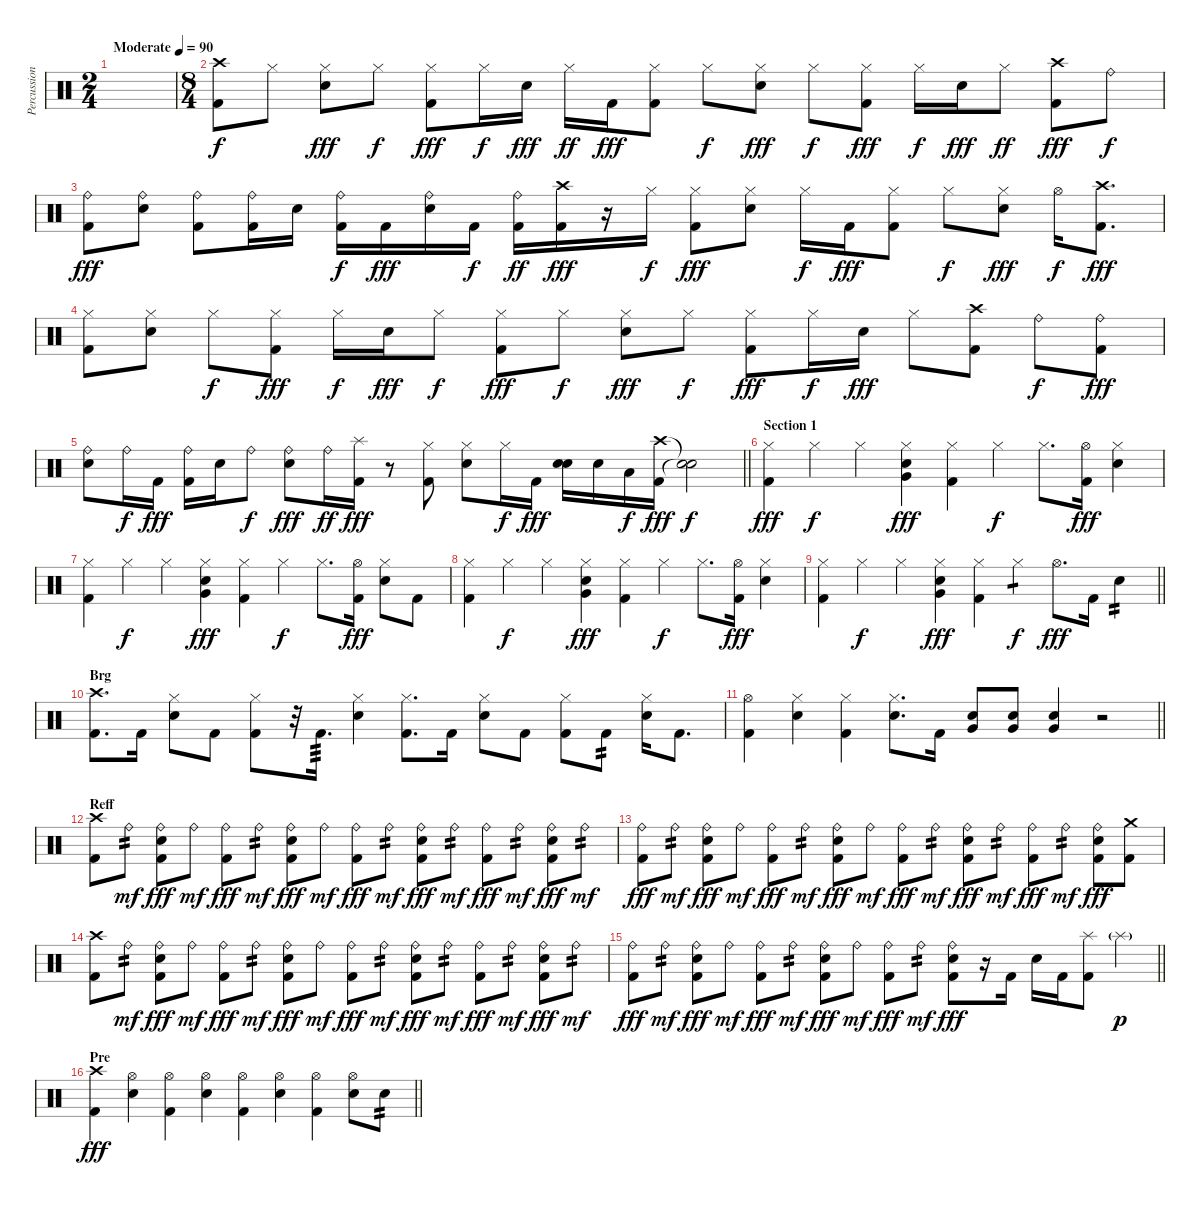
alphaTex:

\track ("Percussion" "Percussion") {instrument percussion}
\staff {score}
\articulation defaults
\ts (2 4)
\tempo (90 "Moderate")
\clef neutral
\ks c
|
\ts (8 4)
("Crash high (hit)" "Kick (hit) 2").8 "Hi-Hat (closed)".8{dy f} ("Hi-Hat (closed)" "Electric Snare (hit)").8{dy fff} "Hi-Hat (closed)".8{dy f} ("Hi-Hat (closed)" "Kick (hit) 2").8{dy fff} "Hi-Hat (closed)".16{dy f} "Electric Snare (hit)".16{dy fff} "Hi-Hat (closed)".16{dy ff} "Kick (hit) 2".16{dy fff} ("Hi-Hat (closed)" "Kick (hit) 2").8 "Hi-Hat (closed)".8{dy f} ("Hi-Hat (closed)" "Electric Snare (hit)").8{dy fff} "Hi-Hat (closed)".8{dy f} ("Hi-Hat (closed)" "Kick (hit) 2").8{dy fff} "Hi-Hat (closed)".16{dy f} "Electric Snare (hit)".16{dy fff} "Hi-Hat (closed)".8{dy ff} ("Crash high (hit)" "Kick (hit) 2").8{dy fff} "Ride (bell)".8{dy f} |
("Ride (bell)" "Kick (hit) 2").8{dy fff} ("Ride (bell)" "Electric Snare (hit)").8 ("Ride (bell)" "Kick (hit) 2").8 ("Ride (bell)" "Kick (hit) 2").16 "Electric Snare (hit)".16 ("Ride (bell)" "Kick (hit) 2").16{dy f} "Kick (hit) 2".16{dy fff} ("Ride (bell)" "Electric Snare (hit)").16 "Kick (hit) 2".16{dy f} ("Ride (bell)" "Kick (hit) 2").16{dy ff} ("Crash high (hit)" "Kick (hit) 2").16{dy fff} r.16 "Hi-Hat (closed)".16{dy f} ("Hi-Hat (closed)" "Kick (hit) 2").8{dy fff} ("Hi-Hat (closed)" "Electric Snare (hit)").8 "Hi-Hat (closed)".16{dy f} "Kick (hit) 2".16{dy fff} ("Hi-Hat (closed)" "Kick (hit) 2").8 "Hi-Hat (closed)".8{dy f} ("Hi-Hat (closed)" "Electric Snare (hit)").8{dy fff} "Hi-Hat (open)".16{dy f} ("Crash high (hit)" "Kick (hit) 2").8{d dy fff} |
("Hi-Hat (closed)" "Kick (hit) 2").8 ("Hi-Hat (closed)" "Electric Snare (hit)").8 "Hi-Hat (closed)".8{dy f} ("Hi-Hat (closed)" "Kick (hit) 2").8{dy fff} "Hi-Hat (closed)".16{dy f} "Electric Snare (hit)".16{dy fff} "Hi-Hat (closed)".8{dy f} ("Hi-Hat (closed)" "Kick (hit) 2").8{dy fff} "Hi-Hat (closed)".8{dy f} ("Hi-Hat (closed)" "Electric Snare (hit)").8{dy fff} "Hi-Hat (closed)".8{dy f} ("Hi-Hat (closed)" "Kick (hit) 2").8{dy fff} "Hi-Hat (closed)".16{dy f} "Electric Snare (hit)".16{dy fff} "Hi-Hat (closed)".8 ("Crash high (hit)" "Kick (hit) 2").8 "Ride (bell)".8{dy f} ("Ride (bell)" "Kick (hit) 2").8{dy fff} |
\barLineRight lightlight
("Ride (bell)" "Electric Snare (hit)").8 "Ride (bell)".16{dy f} "Kick (hit) 2".16{dy fff} ("Ride (bell)" "Kick (hit) 2").16 "Electric Snare (hit)".16 "Ride (bell)".8{dy f} ("Ride (bell)" "Electric Snare (hit)").8{dy fff} "Ride (bell)".16{dy ff} ("Splash (hit)" "Kick (hit) 2").16{dy fff} r.8 ("Hi-Hat (closed)" "Kick (hit) 2").8 ("Hi-Hat (closed)" "Electric Snare (hit)").8 "Hi-Hat (closed)".16{dy f} "Kick (hit) 2".16{dy fff} ("Electric Snare (hit)" "Electric Snare (hit)").16{bd 240} "Electric Snare (hit)".16 "Low Tom (hit)".16{dy f} ("Crash high (hit)" "Kick (hit) 2").16{dy fff} ("Snare (hit)"{t} "Snare (hit)"{t}).2{dy f} |
\section ("" "Section 1")
("Hi-Hat (closed)" "Kick (hit) 2").4{dy fff} "Hi-Hat (closed)".4{dy f} "Hi-Hat (closed)".4 ("Hi-Hat (closed)" "Very Low Tom (hit)" "Electric Snare (hit)").4{dy fff} ("Hi-Hat (closed)" "Kick (hit) 2").4 "Hi-Hat (closed)".4{dy f} "Hi-Hat (closed)".8{d} ("Hi-Hat (open)" "Kick (hit) 2").16{dy fff} ("Hi-Hat (closed)" "Electric Snare (hit)").4 |
("Hi-Hat (closed)" "Kick (hit) 2").4 "Hi-Hat (closed)".4{dy f} "Hi-Hat (closed)".4 ("Hi-Hat (closed)" "Very Low Tom (hit)" "Electric Snare (hit)").4{dy fff} ("Hi-Hat (closed)" "Kick (hit) 2").4 "Hi-Hat (closed)".4{dy f} "Hi-Hat (closed)".8{d} ("Hi-Hat (open)" "Kick (hit) 2").16{dy fff} ("Hi-Hat (closed)" "Electric Snare (hit)").8 "Kick (hit) 2".8 |
("Hi-Hat (closed)" "Kick (hit) 2").4 "Hi-Hat (closed)".4{dy f} "Hi-Hat (closed)".4 ("Hi-Hat (closed)" "Very Low Tom (hit)" "Electric Snare (hit)").4{dy fff} ("Hi-Hat (closed)" "Kick (hit) 2").4 "Hi-Hat (closed)".4{dy f} "Hi-Hat (closed)".8{d} ("Hi-Hat (open)" "Kick (hit) 2").16{dy fff} ("Hi-Hat (closed)" "Electric Snare (hit)").4 |
\barLineRight lightlight
("Hi-Hat (closed)" "Kick (hit) 2").4 "Hi-Hat (closed)".4{dy f} "Hi-Hat (closed)".4 ("Hi-Hat (closed)" "Very Low Tom (hit)" "Electric Snare (hit)").4{dy fff} ("Hi-Hat (closed)" "Kick (hit) 2").4 "Hi-Hat (closed)".4{tp 1 dy f} "Hi-Hat (open)".8{d dy fff} "Kick (hit) 2".16 "Electric Snare (hit)".4{tp 2} |
\section ("" "Brg")
("Crash high (hit)" "Kick (hit) 2").8{d} "Kick (hit) 2".16 ("Hi-Hat (closed)" "Electric Snare (hit)").8 "Kick (hit) 2".8 ("Hi-Hat (closed)" "Kick (hit) 2").8 r.32 "Kick (hit) 2".16{d tp 3} ("Hi-Hat (closed)" "Electric Snare (hit)").4 ("Hi-Hat (closed)" "Kick (hit) 2").8{d} "Kick (hit) 2".16 ("Hi-Hat (closed)" "Electric Snare (hit)").8 "Kick (hit) 2".8 ("Hi-Hat (closed)" "Kick (hit) 2").8 "Kick (hit) 2".8{tp 2} ("Hi-Hat (closed)" "Electric Snare (hit)").16 "Kick (hit) 2".8{d} |
\barLineRight lightlight
("Hi-Hat (open)" "Kick (hit) 2").4 ("Hi-Hat (closed)" "Electric Snare (hit)").4 ("Hi-Hat (closed)" "Kick (hit) 2").4 ("Hi-Hat (closed)" "Electric Snare (hit)").8{d} "Kick (hit) 2".16 ("Very Low Tom (hit)" "Electric Snare (hit)").8 ("Very Low Tom (hit)" "Electric Snare (hit)").8 ("Very Low Tom (hit)" "Electric Snare (hit)").4 r.2 |
\section ("" "Reff")
("Crash high (hit)" "Kick (hit) 2").8 "Ride (bell)".8{tp 2 dy mf} ("Ride (bell)" "Electric Snare (hit)" "Kick (hit) 2").8{dy fff} "Ride (bell)".8{dy mf} ("Ride (bell)" "Kick (hit) 2").8{dy fff} "Ride (bell)".8{tp 2 dy mf} ("Ride (bell)" "Electric Snare (hit)" "Kick (hit) 2").8{dy fff} "Ride (bell)".8{dy mf} ("Ride (bell)" "Kick (hit) 2").8{dy fff} "Ride (bell)".8{tp 2 dy mf} ("Ride (bell)" "Electric Snare (hit)" "Kick (hit) 2").8{dy fff} "Ride (bell)".8{tp 2 dy mf} ("Ride (bell)" "Kick (hit) 2").8{dy fff} "Ride (bell)".8{tp 2 dy mf} ("Ride (bell)" "Electric Snare (hit)" "Kick (hit) 2").8{dy fff} "Ride (bell)".8{tp 2 dy mf} |
("Ride (bell)" "Kick (hit) 2").8{dy fff} "Ride (bell)".8{tp 2 dy mf} ("Ride (bell)" "Electric Snare (hit)" "Kick (hit) 2").8{dy fff} "Ride (bell)".8{dy mf} ("Ride (bell)" "Kick (hit) 2").8{dy fff} "Ride (bell)".8{tp 2 dy mf} ("Ride (bell)" "Electric Snare (hit)" "Kick (hit) 2").8{dy fff} "Ride (bell)".8{dy mf} ("Ride (bell)" "Kick (hit) 2").8{dy fff} "Ride (bell)".8{tp 2 dy mf} ("Ride (bell)" "Electric Snare (hit)" "Kick (hit) 2").8{dy fff} "Ride (bell)".8{tp 2 dy mf} ("Ride (bell)" "Kick (hit) 2").8{dy fff} "Ride (bell)".8{tp 2 dy mf} ("Ride (bell)" "Electric Snare (hit)" "Kick (hit) 2").8{dy fff} ("Crash medium (hit)" "Kick (hit) 2").8 |
("Crash high (hit)" "Kick (hit) 2").8 "Ride (bell)".8{tp 2 dy mf} ("Ride (bell)" "Electric Snare (hit)" "Kick (hit) 2").8{dy fff} "Ride (bell)".8{dy mf} ("Ride (bell)" "Kick (hit) 2").8{dy fff} "Ride (bell)".8{tp 2 dy mf} ("Ride (bell)" "Electric Snare (hit)" "Kick (hit) 2").8{dy fff} "Ride (bell)".8{dy mf} ("Ride (bell)" "Kick (hit) 2").8{dy fff} "Ride (bell)".8{tp 2 dy mf} ("Ride (bell)" "Electric Snare (hit)" "Kick (hit) 2").8{dy fff} "Ride (bell)".8{tp 2 dy mf} ("Ride (bell)" "Kick (hit) 2").8{dy fff} "Ride (bell)".8{tp 2 dy mf} ("Ride (bell)" "Electric Snare (hit)" "Kick (hit) 2").8{dy fff} "Ride (bell)".8{tp 2 dy mf} |
\barLineRight lightlight
("Ride (bell)" "Kick (hit) 2").8{dy fff} "Ride (bell)".8{tp 2 dy mf} ("Ride (bell)" "Electric Snare (hit)" "Kick (hit) 2").8{dy fff} "Ride (bell)".8{dy mf} ("Ride (bell)" "Kick (hit) 2").8{dy fff} "Ride (bell)".8{tp 2 dy mf} ("Ride (bell)" "Electric Snare (hit)" "Kick (hit) 2").8{dy fff} "Ride (bell)".8{dy mf} ("Ride (bell)" "Kick (hit) 2").8{dy fff} "Ride (bell)".8{tp 2 dy mf} ("Ride (bell)" "Electric Snare (hit)" "Kick (hit) 2").8{dy fff} r.16 "Kick (hit) 2".16 "Electric Snare (hit)".16 "Kick (hit) 2".16 ("Splash (hit)" "Kick (hit) 2").8 "Splash (hit)"{g}.4{dy p} |
\section ("" "Pre")
\barLineRight lightlight
("Crash high (hit)" "Kick (hit) 2").4{dy fff} ("Hi-Hat (open)" "Electric Snare (hit)").4 ("Hi-Hat (open)" "Kick (hit) 2").4 ("Hi-Hat (open)" "Electric Snare (hit)").4 ("Hi-Hat (open)" "Kick (hit) 2").4 ("Hi-Hat (open)" "Electric Snare (hit)").4 ("Hi-Hat (open)" "Kick (hit) 2").4 ("Hi-Hat (open)" "Electric Snare (hit)").8 "Electric Snare (hit)".8{tp 2}
